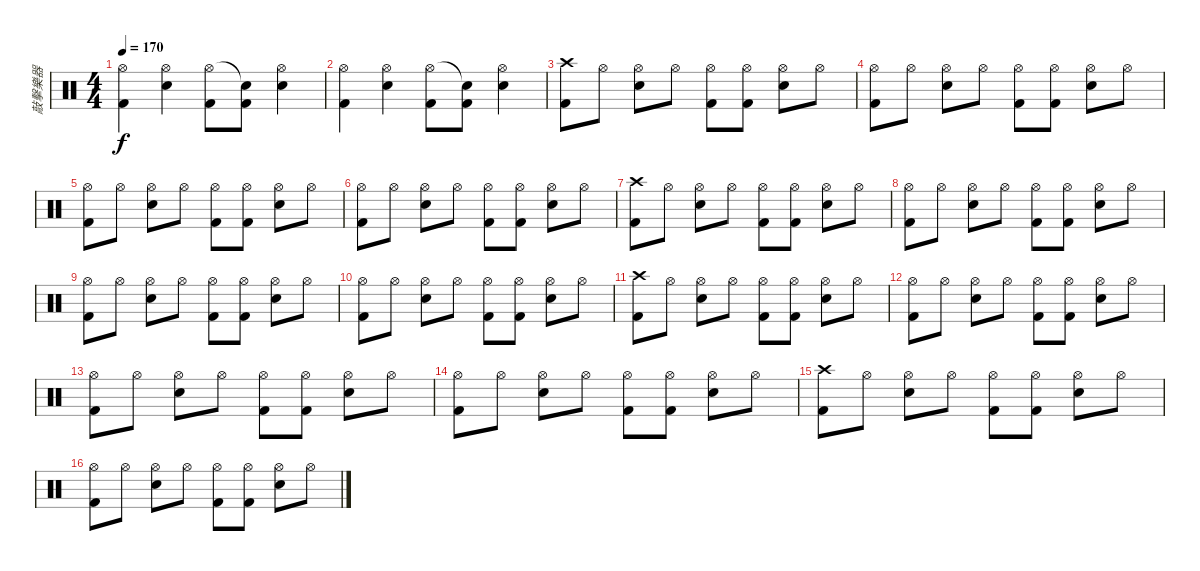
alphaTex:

\track ("敲擊樂器" "敲擊樂器") {instrument percussion}
\staff {score}
\articulation defaults
\ts (4 4)
\tempo 170
\clef neutral
\ks c
("Hi-Hat (open)" "Kick (hit) 2").4{dy f} ("Hi-Hat (open)" "Snare (hit) 2").4 ("Hi-Hat (open)" "Kick (hit) 2").8 ("Snare (hit)"{t} "Kick (hit) 2").8 ("Hi-Hat (open)" "Snare (hit) 2").4 |
("Hi-Hat (open)" "Kick (hit) 2").4 ("Hi-Hat (open)" "Snare (hit) 2").4 ("Hi-Hat (open)" "Kick (hit) 2").8 ("Snare (hit)"{t} "Kick (hit) 2").8 ("Hi-Hat (open)" "Snare (hit) 2").4 |
("Crash high (hit)" "Kick (hit) 2").8 "Hi-Hat (open)".8 ("Hi-Hat (open)" "Snare (hit) 2").8 "Hi-Hat (open)".8 ("Hi-Hat (open)" "Kick (hit) 2").8 ("Hi-Hat (open)" "Kick (hit) 2").8 ("Hi-Hat (open)" "Snare (hit) 2").8 "Hi-Hat (open)".8 |
("Hi-Hat (open)" "Kick (hit) 2").8 "Hi-Hat (open)".8 ("Hi-Hat (open)" "Snare (hit) 2").8 "Hi-Hat (open)".8 ("Hi-Hat (open)" "Kick (hit) 2").8 ("Hi-Hat (open)" "Kick (hit) 2").8 ("Hi-Hat (open)" "Snare (hit) 2").8 "Hi-Hat (open)".8 |
("Hi-Hat (open)" "Kick (hit) 2").8 "Hi-Hat (open)".8 ("Hi-Hat (open)" "Snare (hit) 2").8 "Hi-Hat (open)".8 ("Hi-Hat (open)" "Kick (hit) 2").8 ("Hi-Hat (open)" "Kick (hit) 2").8 ("Hi-Hat (open)" "Snare (hit) 2").8 "Hi-Hat (open)".8 |
("Hi-Hat (open)" "Kick (hit) 2").8 "Hi-Hat (open)".8 ("Hi-Hat (open)" "Snare (hit) 2").8 "Hi-Hat (open)".8 ("Hi-Hat (open)" "Kick (hit) 2").8 ("Hi-Hat (open)" "Kick (hit) 2").8 ("Hi-Hat (open)" "Snare (hit) 2").8 "Hi-Hat (open)".8 |
("Crash high (hit)" "Kick (hit) 2").8 "Hi-Hat (open)".8 ("Hi-Hat (open)" "Snare (hit) 2").8 "Hi-Hat (open)".8 ("Hi-Hat (open)" "Kick (hit) 2").8 ("Hi-Hat (open)" "Kick (hit) 2").8 ("Hi-Hat (open)" "Snare (hit) 2").8 "Hi-Hat (open)".8 |
("Hi-Hat (open)" "Kick (hit) 2").8 "Hi-Hat (open)".8 ("Hi-Hat (open)" "Snare (hit) 2").8 "Hi-Hat (open)".8 ("Hi-Hat (open)" "Kick (hit) 2").8 ("Hi-Hat (open)" "Kick (hit) 2").8 ("Hi-Hat (open)" "Snare (hit) 2").8 "Hi-Hat (open)".8 |
("Hi-Hat (open)" "Kick (hit) 2").8 "Hi-Hat (open)".8 ("Hi-Hat (open)" "Snare (hit) 2").8 "Hi-Hat (open)".8 ("Hi-Hat (open)" "Kick (hit) 2").8 ("Hi-Hat (open)" "Kick (hit) 2").8 ("Hi-Hat (open)" "Snare (hit) 2").8 "Hi-Hat (open)".8 |
("Hi-Hat (open)" "Kick (hit) 2").8 "Hi-Hat (open)".8 ("Hi-Hat (open)" "Snare (hit) 2").8 "Hi-Hat (open)".8 ("Hi-Hat (open)" "Kick (hit) 2").8 ("Hi-Hat (open)" "Kick (hit) 2").8 ("Hi-Hat (open)" "Snare (hit) 2").8 "Hi-Hat (open)".8 |
("Crash high (hit)" "Kick (hit) 2").8 "Hi-Hat (open)".8 ("Hi-Hat (open)" "Snare (hit) 2").8 "Hi-Hat (open)".8 ("Hi-Hat (open)" "Kick (hit) 2").8 ("Hi-Hat (open)" "Kick (hit) 2").8 ("Hi-Hat (open)" "Snare (hit) 2").8 "Hi-Hat (open)".8 |
("Hi-Hat (open)" "Kick (hit) 2").8 "Hi-Hat (open)".8 ("Hi-Hat (open)" "Snare (hit) 2").8 "Hi-Hat (open)".8 ("Hi-Hat (open)" "Kick (hit) 2").8 ("Hi-Hat (open)" "Kick (hit) 2").8 ("Hi-Hat (open)" "Snare (hit) 2").8 "Hi-Hat (open)".8 |
("Hi-Hat (open)" "Kick (hit) 2").8 "Hi-Hat (open)".8 ("Hi-Hat (open)" "Snare (hit) 2").8 "Hi-Hat (open)".8 ("Hi-Hat (open)" "Kick (hit) 2").8 ("Hi-Hat (open)" "Kick (hit) 2").8 ("Hi-Hat (open)" "Snare (hit) 2").8 "Hi-Hat (open)".8 |
("Hi-Hat (open)" "Kick (hit) 2").8 "Hi-Hat (open)".8 ("Hi-Hat (open)" "Snare (hit) 2").8 "Hi-Hat (open)".8 ("Hi-Hat (open)" "Kick (hit) 2").8 ("Hi-Hat (open)" "Kick (hit) 2").8 ("Hi-Hat (open)" "Snare (hit) 2").8 "Hi-Hat (open)".8 |
("Crash high (hit)" "Kick (hit) 2").8 "Hi-Hat (open)".8 ("Hi-Hat (open)" "Snare (hit) 2").8 "Hi-Hat (open)".8 ("Hi-Hat (open)" "Kick (hit) 2").8 ("Hi-Hat (open)" "Kick (hit) 2").8 ("Hi-Hat (open)" "Snare (hit) 2").8 "Hi-Hat (open)".8 |
("Hi-Hat (open)" "Kick (hit) 2").8 "Hi-Hat (open)".8 ("Hi-Hat (open)" "Snare (hit) 2").8 "Hi-Hat (open)".8 ("Hi-Hat (open)" "Kick (hit) 2").8 ("Hi-Hat (open)" "Kick (hit) 2").8 ("Hi-Hat (open)" "Snare (hit) 2").8 "Hi-Hat (open)".8
